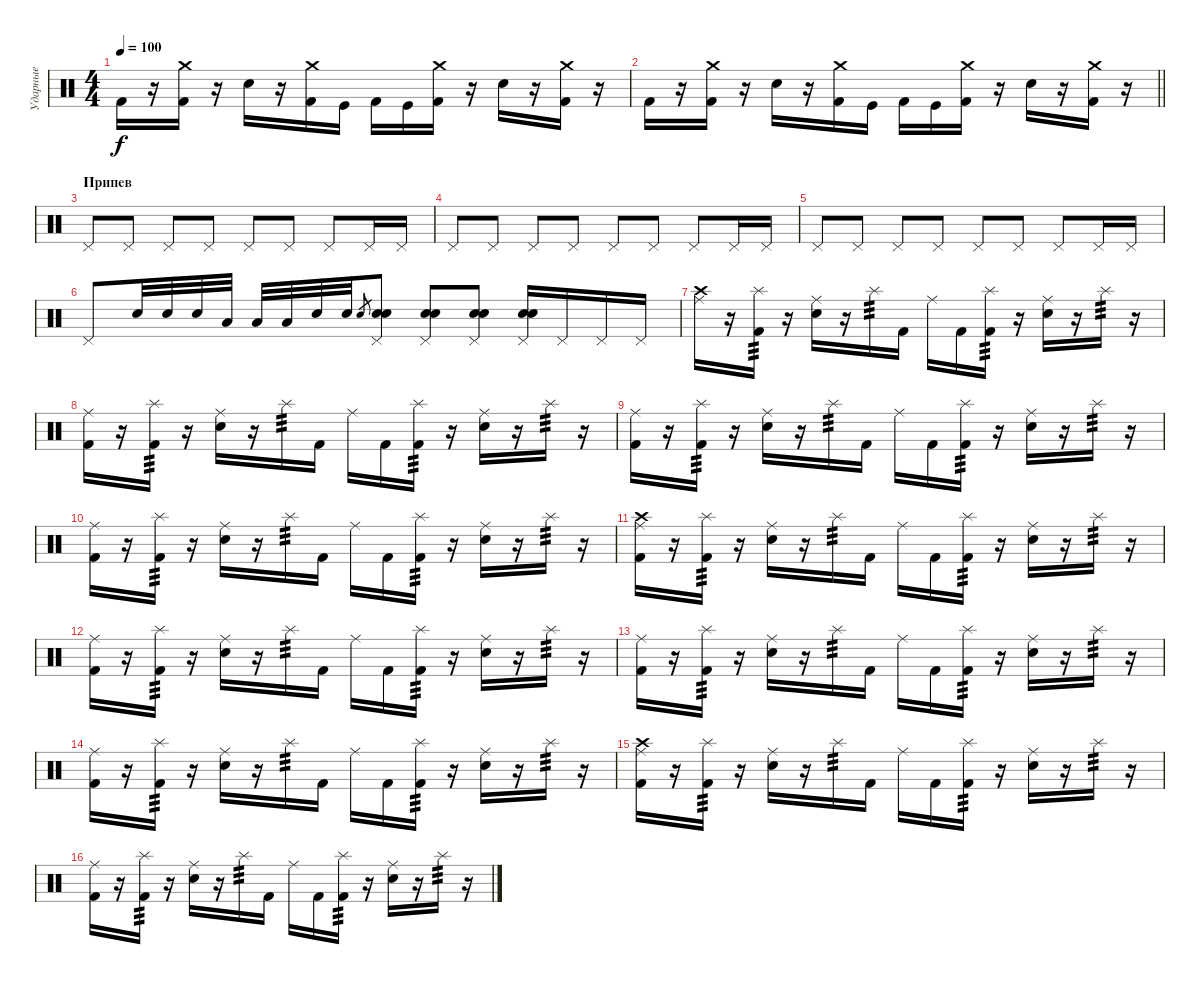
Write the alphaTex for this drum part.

\track ("Ударные" "Ударные") {instrument percussion}
\staff {score}
\articulation defaults
\ts (4 4)
\tempo 100
\clef neutral
\ks c "Kick (hit) 2".16{dy f}
r.16 ("Crash medium (hit)" "Kick (hit) 2").16 r.16 "Electric Snare (hit)".16 r.16 ("Crash medium (hit)" "Kick (hit) 2").16 "Kick (hit)".16 "Kick (hit) 2".16 "Kick (hit)".16 ("Crash medium (hit)" "Kick (hit) 2").16 r.16 "Electric Snare (hit)".16 r.16 ("Crash medium (hit)" "Kick (hit) 2").16 r.16 |
\barLineRight lightlight "Kick (hit) 2".16
r.16 ("Crash medium (hit)" "Kick (hit) 2").16 r.16 "Electric Snare (hit)".16 r.16 ("Crash medium (hit)" "Kick (hit) 2").16 "Kick (hit)".16 "Kick (hit) 2".16 "Kick (hit)".16 ("Crash medium (hit)" "Kick (hit) 2").16 r.16 "Electric Snare (hit)".16 r.16 ("Crash medium (hit)" "Kick (hit) 2").16 r.16 |
\section ("" "Припев")
"Pedal Hi-Hat (hit)".8 "Pedal Hi-Hat (hit)".8 "Pedal Hi-Hat (hit)".8 "Pedal Hi-Hat (hit)".8 "Pedal Hi-Hat (hit)".8 "Pedal Hi-Hat (hit)".8 "Pedal Hi-Hat (hit)".8 "Pedal Hi-Hat (hit)".16 "Pedal Hi-Hat (hit)".16 |
"Pedal Hi-Hat (hit)".8 "Pedal Hi-Hat (hit)".8 "Pedal Hi-Hat (hit)".8 "Pedal Hi-Hat (hit)".8 "Pedal Hi-Hat (hit)".8 "Pedal Hi-Hat (hit)".8 "Pedal Hi-Hat (hit)".8 "Pedal Hi-Hat (hit)".16 "Pedal Hi-Hat (hit)".16 |
"Pedal Hi-Hat (hit)".8 "Pedal Hi-Hat (hit)".8 "Pedal Hi-Hat (hit)".8 "Pedal Hi-Hat (hit)".8 "Pedal Hi-Hat (hit)".8 "Pedal Hi-Hat (hit)".8 "Pedal Hi-Hat (hit)".8 "Pedal Hi-Hat (hit)".16 "Pedal Hi-Hat (hit)".16 |
"Pedal Hi-Hat (hit)".8 "Electric Snare (hit)".32 "Electric Snare (hit)".32 "Electric Snare (hit)".32 "Low Tom (hit)".32 "Low Tom (hit)".32 "Low Tom (hit)".32 "Electric Snare (hit)".32 "Electric Snare (hit)".32 "Electric Snare (hit)".8{gr} ("Electric Snare (hit)" "Electric Snare (hit)" "Pedal Hi-Hat (hit)").8 ("Electric Snare (hit)" "Electric Snare (hit)" "Pedal Hi-Hat (hit)").8 ("Electric Snare (hit)" "Electric Snare (hit)" "Pedal Hi-Hat (hit)").8 ("Electric Snare (hit)" "Electric Snare (hit)" "Pedal Hi-Hat (hit)").16 "Pedal Hi-Hat (hit)".16 "Pedal Hi-Hat (hit)".16 "Pedal Hi-Hat (hit)".16 |
("Crash high (hit)" "Ride (middle)").16 r.16 ("Kick (hit) 2" "Splash (hit)").16{tp 3} r.16 ("Electric Snare (hit)" "Ride (middle)").16 r.16 "Splash (hit)".16{tp 3} "Kick (hit) 2".16 "Ride (middle)".16 "Kick (hit) 2".16 ("Kick (hit) 2" "Splash (hit)").16{tp 3} r.16 ("Electric Snare (hit)" "Ride (middle)").16 r.16 "Splash (hit)".16{tp 3} r.16 |
("Kick (hit) 2" "Ride (middle)").16 r.16 ("Kick (hit) 2" "Splash (hit)").16{tp 3} r.16 ("Electric Snare (hit)" "Ride (middle)").16 r.16 "Splash (hit)".16{tp 3} "Kick (hit) 2".16 "Ride (middle)".16 "Kick (hit) 2".16 ("Kick (hit) 2" "Splash (hit)").16{tp 3} r.16 ("Electric Snare (hit)" "Ride (middle)").16 r.16 "Splash (hit)".16{tp 3} r.16 |
("Kick (hit) 2" "Ride (middle)").16 r.16 ("Kick (hit) 2" "Splash (hit)").16{tp 3} r.16 ("Electric Snare (hit)" "Ride (middle)").16 r.16 "Splash (hit)".16{tp 3} "Kick (hit) 2".16 "Ride (middle)".16 "Kick (hit) 2".16 ("Kick (hit) 2" "Splash (hit)").16{tp 3} r.16 ("Electric Snare (hit)" "Ride (middle)").16 r.16 "Splash (hit)".16{tp 3} r.16 |
("Kick (hit) 2" "Ride (middle)").16 r.16 ("Kick (hit) 2" "Splash (hit)").16{tp 3} r.16 ("Electric Snare (hit)" "Ride (middle)").16 r.16 "Splash (hit)".16{tp 3} "Kick (hit) 2".16 "Ride (middle)".16 "Kick (hit) 2".16 ("Kick (hit) 2" "Splash (hit)").16{tp 3} r.16 ("Electric Snare (hit)" "Ride (middle)").16 r.16 "Splash (hit)".16{tp 3} r.16 |
("Crash high (hit)" "Kick (hit) 2" "Ride (middle)").16 r.16 ("Kick (hit) 2" "Splash (hit)").16{tp 3} r.16 ("Electric Snare (hit)" "Ride (middle)").16 r.16 "Splash (hit)".16{tp 3} "Kick (hit) 2".16 "Ride (middle)".16 "Kick (hit) 2".16 ("Kick (hit) 2" "Splash (hit)").16{tp 3} r.16 ("Electric Snare (hit)" "Ride (middle)").16 r.16 "Splash (hit)".16{tp 3} r.16 |
("Kick (hit) 2" "Ride (middle)").16 r.16 ("Kick (hit) 2" "Splash (hit)").16{tp 3} r.16 ("Electric Snare (hit)" "Ride (middle)").16 r.16 "Splash (hit)".16{tp 3} "Kick (hit) 2".16 "Ride (middle)".16 "Kick (hit) 2".16 ("Kick (hit) 2" "Splash (hit)").16{tp 3} r.16 ("Electric Snare (hit)" "Ride (middle)").16 r.16 "Splash (hit)".16{tp 3} r.16 |
("Kick (hit) 2" "Ride (middle)").16 r.16 ("Kick (hit) 2" "Splash (hit)").16{tp 3} r.16 ("Electric Snare (hit)" "Ride (middle)").16 r.16 "Splash (hit)".16{tp 3} "Kick (hit) 2".16 "Ride (middle)".16 "Kick (hit) 2".16 ("Kick (hit) 2" "Splash (hit)").16{tp 3} r.16 ("Electric Snare (hit)" "Ride (middle)").16 r.16 "Splash (hit)".16{tp 3} r.16 |
("Kick (hit) 2" "Ride (middle)").16 r.16 ("Kick (hit) 2" "Splash (hit)").16{tp 3} r.16 ("Electric Snare (hit)" "Ride (middle)").16 r.16 "Splash (hit)".16{tp 3} "Kick (hit) 2".16 "Ride (middle)".16 "Kick (hit) 2".16 ("Kick (hit) 2" "Splash (hit)").16{tp 3} r.16 ("Electric Snare (hit)" "Ride (middle)").16 r.16 "Splash (hit)".16{tp 3} r.16 |
("Crash high (hit)" "Kick (hit) 2" "Ride (middle)").16 r.16 ("Kick (hit) 2" "Splash (hit)").16{tp 3} r.16 ("Electric Snare (hit)" "Ride (middle)").16 r.16 "Splash (hit)".16{tp 3} "Kick (hit) 2".16 "Ride (middle)".16 "Kick (hit) 2".16 ("Kick (hit) 2" "Splash (hit)").16{tp 3} r.16 ("Electric Snare (hit)" "Ride (middle)").16 r.16 "Splash (hit)".16{tp 3} r.16 |
("Kick (hit) 2" "Ride (middle)").16 r.16 ("Kick (hit) 2" "Splash (hit)").16{tp 3} r.16 ("Electric Snare (hit)" "Ride (middle)").16 r.16 "Splash (hit)".16{tp 3} "Kick (hit) 2".16 "Ride (middle)".16 "Kick (hit) 2".16 ("Kick (hit) 2" "Splash (hit)").16{tp 3} r.16 ("Electric Snare (hit)" "Ride (middle)").16 r.16 "Splash (hit)".16{tp 3} r.16
